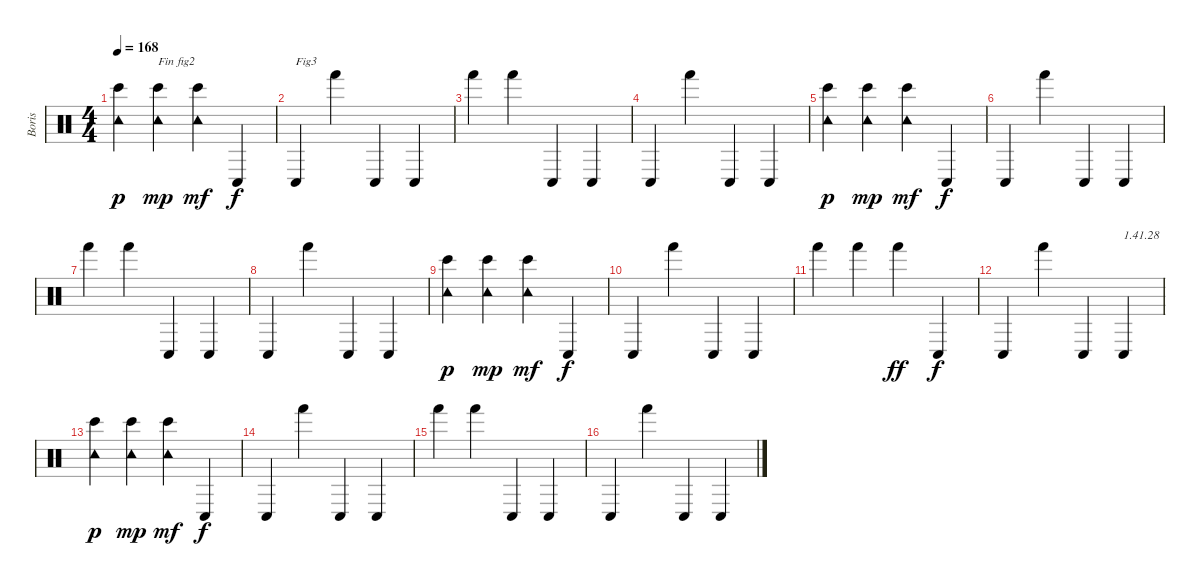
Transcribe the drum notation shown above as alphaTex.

\track ("Boris" "Boris") {instrument percussion}
\staff {score}
\articulation defaults
\ts (4 4)
\tempo 168
\clef neutral
\ks c
("Tambourine (hit)" "Bongo High (hit)").4{dy p} ("Tambourine (hit)" "Bongo High (hit)").4{txt "Fin fig2" dy mp} ("Tambourine (hit)" "Bongo High (hit)").4{dy mf} "Conga low (hit)".4{dy f} |
"Conga low (hit)".4{txt "Fig3"} "Hand (hit)".4 "Conga low (hit)".4 "Conga low (hit)".4 |
"Hand (hit)".4 "Hand (hit)".4 "Conga low (hit)".4 "Conga low (hit)".4 |
"Conga low (hit)".4 "Hand (hit)".4 "Conga low (hit)".4 "Conga low (hit)".4 |
("Tambourine (hit)" "Bongo High (hit)").4{dy p} ("Tambourine (hit)" "Bongo High (hit)").4{dy mp} ("Tambourine (hit)" "Bongo High (hit)").4{dy mf} "Conga low (hit)".4{dy f} |
"Conga low (hit)".4 "Hand (hit)".4 "Conga low (hit)".4 "Conga low (hit)".4 |
"Hand (hit)".4 "Hand (hit)".4 "Conga low (hit)".4 "Conga low (hit)".4 |
"Conga low (hit)".4 "Hand (hit)".4 "Conga low (hit)".4 "Conga low (hit)".4 |
("Tambourine (hit)" "Bongo High (hit)").4{dy p} ("Tambourine (hit)" "Bongo High (hit)").4{dy mp} ("Tambourine (hit)" "Bongo High (hit)").4{dy mf} "Conga low (hit)".4{dy f} |
"Conga low (hit)".4 "Hand (hit)".4 "Conga low (hit)".4 "Conga low (hit)".4 |
"Hand (hit)".4 "Hand (hit)".4 "Hand (hit)".4{dy ff} "Conga low (hit)".4{dy f} |
"Conga low (hit)".4 "Hand (hit)".4 "Conga low (hit)".4 "Conga low (hit)".4{txt "1.41.28"} |
("Tambourine (hit)" "Bongo High (hit)").4{dy p} ("Tambourine (hit)" "Bongo High (hit)").4{dy mp} ("Tambourine (hit)" "Bongo High (hit)").4{dy mf} "Conga low (hit)".4{dy f} |
"Conga low (hit)".4 "Hand (hit)".4 "Conga low (hit)".4 "Conga low (hit)".4 |
"Hand (hit)".4 "Hand (hit)".4 "Conga low (hit)".4 "Conga low (hit)".4 |
"Conga low (hit)".4 "Hand (hit)".4 "Conga low (hit)".4 "Conga low (hit)".4
